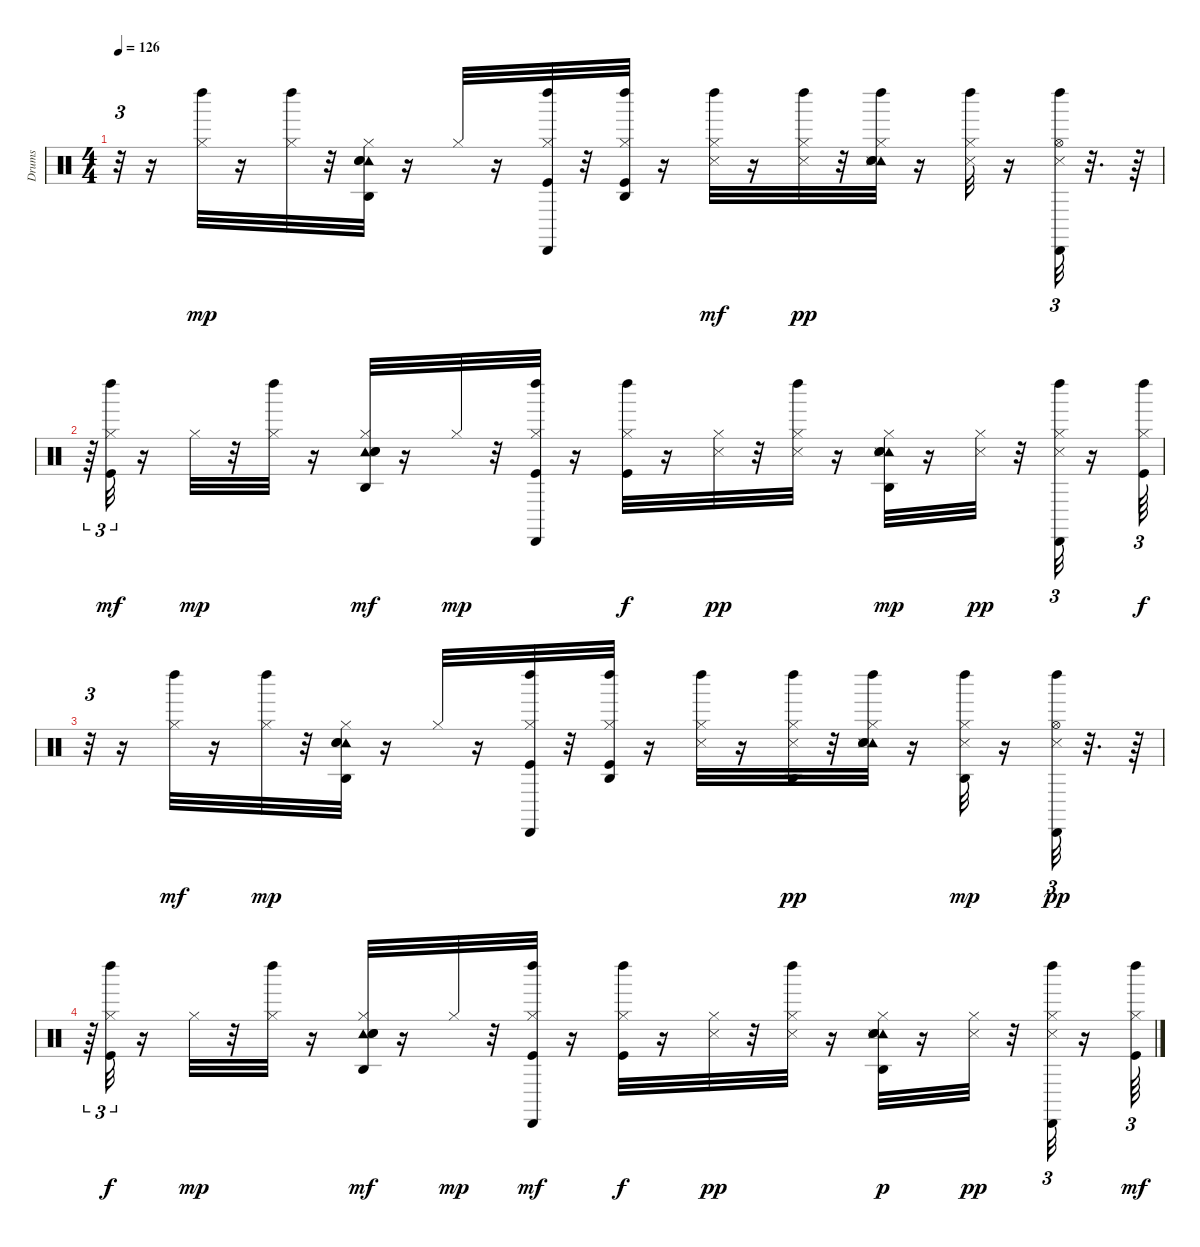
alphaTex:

\track ("Drums" "Drums") {instrument percussion}
\staff {score}
\articulation defaults
\ts (4 4)
\tempo 126
\clef neutral
\ks c
r.32{tu (3 2) dy f} r.16 ("Hi-Hat (closed)" "Left Maraca (hit)").32{dy mp} r.16 ("Left Maraca (hit)" "Hi-Hat (closed)").32 r.32 ("Tambourine (hit)" "Snare (hit) 2" "Hi-Hat (closed)" "Agogo high (hit)" "Hand Clap (hit)").32 r.16 "Hi-Hat (closed)".32 r.16 ("Kick (hit)" "Hi-Hat (closed)" "Left Maraca (hit)" "Cabasa (hit)").32 r.32 ("Kick (hit)" "Hi-Hat (closed)" "Left Maraca (hit)" "Agogo high (hit)").32 r.16 ("Hi-Hat (closed)" "Snare (side stick) 3" "Left Maraca (hit)").32{dy mf} r.16 ("Hi-Hat (closed)" "Left Maraca (hit)" "Snare (side stick) 3").32{dy pp} r.32 ("Hi-Hat (closed)" "Tambourine (hit)" "Hand Clap (hit)" "Snare (hit) 2" "Snare (side stick) 3" "Left Maraca (hit)").32 r.16 ("Hi-Hat (closed)" "Left Maraca (hit)" "Snare (side stick) 3").32 r.16 ("Hi-Hat (open)" "Left Maraca (hit)" "Cabasa (hit)" "Snare (side stick) 3").32{tu (3 2)} r.32{d} r.64 |
r.64{tu (3 2)} ("Kick (hit)" "Hi-Hat (closed)" "Left Maraca (hit)").32{tu (3 2) dy mf} r.16 "Hi-Hat (closed)".32{dy mp} r.32 ("Hi-Hat (closed)" "Left Maraca (hit)").32 r.16 ("Hi-Hat (closed)" "Tambourine (hit)" "Agogo high (hit)" "Snare (hit) 2" "Hand Clap (hit)").32{dy mf} r.16 "Hi-Hat (closed)".32{dy mp} r.32 ("Cabasa (hit)" "Kick (hit)" "Hi-Hat (closed)" "Left Maraca (hit)").32 r.16 ("Hi-Hat (closed)" "Kick (hit)" "Left Maraca (hit)").32{dy f} r.16 ("Hi-Hat (closed)" "Snare (side stick) 3").32{dy pp} r.32 ("Hi-Hat (closed)" "Left Maraca (hit)" "Snare (side stick) 3").32 r.16 ("Hi-Hat (closed)" "Tambourine (hit)" "Hand Clap (hit)" "Snare (hit) 2" "Snare (side stick) 3" "Agogo high (hit)").32{dy mp} r.16 ("Hi-Hat (closed)" "Snare (side stick) 3").32{dy pp} r.32 ("Cabasa (hit)" "Hi-Hat (closed)" "Left Maraca (hit)" "Snare (side stick) 3").32{tu (3 2)} r.16 ("Kick (hit)" "Hi-Hat (closed)" "Left Maraca (hit)").64{tu (3 2) dy f} |
r.32{tu (3 2)} r.16 ("Hi-Hat (closed)" "Left Maraca (hit)").32{dy mf} r.16 ("Left Maraca (hit)" "Hi-Hat (closed)").32{dy mp} r.32 ("Tambourine (hit)" "Snare (hit) 2" "Hi-Hat (closed)" "Agogo high (hit)" "Hand Clap (hit)").32 r.16 "Hi-Hat (closed)".32 r.16 ("Kick (hit)" "Hi-Hat (closed)" "Left Maraca (hit)" "Cabasa (hit)").32 r.32 ("Kick (hit)" "Hi-Hat (closed)" "Left Maraca (hit)" "Agogo high (hit)").32 r.16 ("Hi-Hat (closed)" "Snare (side stick) 3" "Left Maraca (hit)").32 r.16 ("Hi-Hat (closed)" "Left Maraca (hit)" "Agogo high (hit)" "Snare (side stick) 3").32{dy pp} r.32 ("Hi-Hat (closed)" "Tambourine (hit)" "Hand Clap (hit)" "Snare (hit) 2" "Snare (side stick) 3" "Left Maraca (hit)").32 r.16 ("Hi-Hat (closed)" "Left Maraca (hit)" "Snare (side stick) 3" "Agogo high (hit)").32{dy mp} r.16 ("Hi-Hat (open)" "Left Maraca (hit)" "Cabasa (hit)" "Snare (side stick) 3").32{tu (3 2) dy pp} r.32{d} r.64 |
r.64{tu (3 2)} ("Kick (hit)" "Hi-Hat (closed)" "Left Maraca (hit)").32{tu (3 2) dy f} r.16 "Hi-Hat (closed)".32{dy mp} r.32 ("Hi-Hat (closed)" "Left Maraca (hit)").32 r.16 ("Hi-Hat (closed)" "Tambourine (hit)" "Agogo high (hit)" "Snare (hit) 2" "Hand Clap (hit)").32{dy mf} r.16 "Hi-Hat (closed)".32{dy mp} r.32 ("Cabasa (hit)" "Kick (hit)" "Hi-Hat (closed)" "Left Maraca (hit)").32{dy mf} r.16 ("Hi-Hat (closed)" "Kick (hit)" "Left Maraca (hit)").32{dy f} r.16 ("Hi-Hat (closed)" "Snare (side stick) 3").32{dy pp} r.32 ("Hi-Hat (closed)" "Left Maraca (hit)" "Snare (side stick) 3").32 r.16 ("Hi-Hat (closed)" "Tambourine (hit)" "Hand Clap (hit)" "Snare (hit) 2" "Snare (side stick) 3" "Agogo high (hit)").32{dy p} r.16 ("Hi-Hat (closed)" "Snare (side stick) 3").32{dy pp} r.32 ("Cabasa (hit)" "Hi-Hat (closed)" "Left Maraca (hit)" "Snare (side stick) 3").32{tu (3 2)} r.16 ("Kick (hit)" "Hi-Hat (closed)" "Left Maraca (hit)").64{tu (3 2) dy mf}
